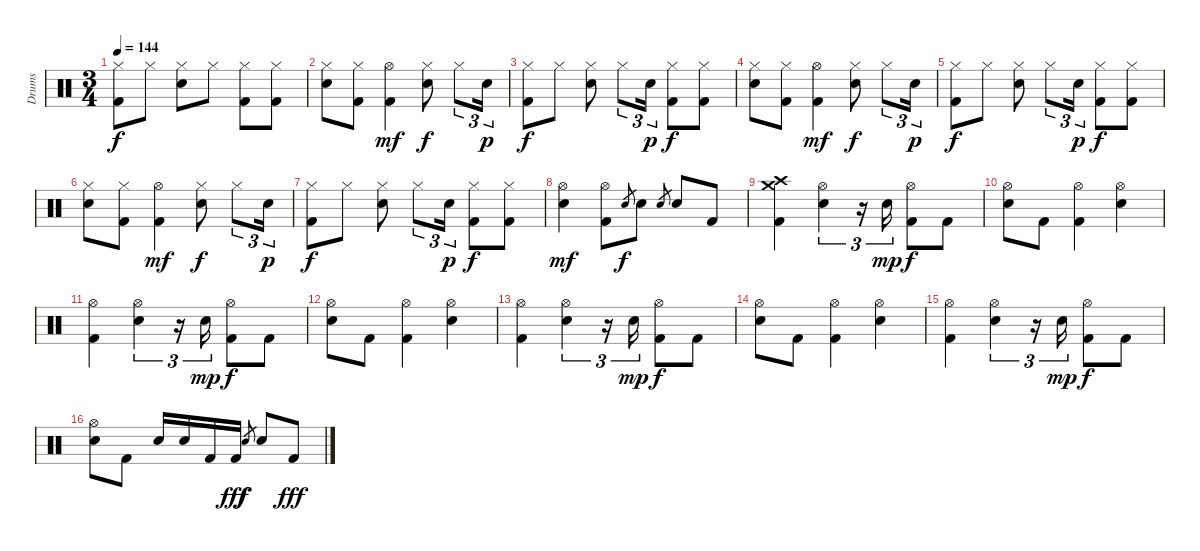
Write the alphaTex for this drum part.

\track ("Drums" "Drums") {instrument percussion}
\staff {score}
\articulation defaults
\ts (3 4)
\tempo 144
\clef neutral
\ks c
("Hi-Hat (closed)" "Kick (hit) 2").8{dy f} "Hi-Hat (closed)".8 ("Hi-Hat (closed)" "Snare (hit) 2").8 "Hi-Hat (closed)".8 ("Hi-Hat (closed)" "Kick (hit) 2").8 ("Hi-Hat (closed)" "Kick (hit) 2").8 |
("Hi-Hat (closed)" "Snare (hit) 2").8 ("Hi-Hat (closed)" "Kick (hit) 2").8 ("Hi-Hat (open)" "Kick (hit) 2").4{dy mf} ("Hi-Hat (closed)" "Snare (hit) 2").8{dy f} "Hi-Hat (closed)".8{tu (3 2)} "Snare (hit) 2".16{tu (3 2) dy p} |
("Hi-Hat (closed)" "Kick (hit) 2").8{dy f} "Hi-Hat (closed)".8 ("Hi-Hat (closed)" "Snare (hit) 2").8 "Hi-Hat (closed)".8{tu (3 2)} "Snare (hit) 2".16{tu (3 2) dy p} ("Hi-Hat (closed)" "Kick (hit) 2").8{dy f} ("Hi-Hat (closed)" "Kick (hit) 2").8 |
("Hi-Hat (closed)" "Snare (hit) 2").8 ("Hi-Hat (closed)" "Kick (hit) 2").8 ("Hi-Hat (open)" "Kick (hit) 2").4{dy mf} ("Hi-Hat (closed)" "Snare (hit) 2").8{dy f} "Hi-Hat (closed)".8{tu (3 2)} "Snare (hit) 2".16{tu (3 2) dy p} |
("Hi-Hat (closed)" "Kick (hit) 2").8{dy f} "Hi-Hat (closed)".8 ("Hi-Hat (closed)" "Snare (hit) 2").8 "Hi-Hat (closed)".8{tu (3 2)} "Snare (hit) 2".16{tu (3 2) dy p} ("Hi-Hat (closed)" "Kick (hit) 2").8{dy f} ("Hi-Hat (closed)" "Kick (hit) 2").8 |
("Hi-Hat (closed)" "Snare (hit) 2").8 ("Hi-Hat (closed)" "Kick (hit) 2").8 ("Hi-Hat (open)" "Kick (hit) 2").4{dy mf} ("Hi-Hat (closed)" "Snare (hit) 2").8{dy f} "Hi-Hat (closed)".8{tu (3 2)} "Snare (hit) 2".16{tu (3 2) dy p} |
("Hi-Hat (closed)" "Kick (hit) 2").8{dy f} "Hi-Hat (closed)".8 ("Hi-Hat (closed)" "Snare (hit) 2").8 "Hi-Hat (closed)".8{tu (3 2)} "Snare (hit) 2".16{tu (3 2) dy p} ("Hi-Hat (closed)" "Kick (hit) 2").8{dy f} ("Hi-Hat (closed)" "Kick (hit) 2").8 |
("Hi-Hat (open)" "Snare (hit) 2").4{dy mf} ("Hi-Hat (open)" "Kick (hit) 2").8 "Snare (hit) 2".8{gr dy f} "Snare (hit) 2".8 "Snare (hit) 2".8{gr} "Snare (hit) 2".8 "Kick (hit) 2".8 |
("Crash high (hit)" "Crash medium (hit)" "Kick (hit) 2").4 ("Hi-Hat (open)" "Snare (hit) 2").4{tu (3 2)} r.16{tu (3 2)} "Snare (hit) 2".16{tu (3 2) dy mp} ("Hi-Hat (open)" "Kick (hit) 2").8{dy f} "Kick (hit) 2".8 |
("Hi-Hat (open)" "Snare (hit) 2").8 "Kick (hit) 2".8 ("Hi-Hat (open)" "Kick (hit) 2").4 ("Hi-Hat (open)" "Snare (hit) 2").4 |
("Hi-Hat (open)" "Kick (hit) 2").4 ("Hi-Hat (open)" "Snare (hit) 2").4{tu (3 2)} r.16{tu (3 2)} "Snare (hit) 2".16{tu (3 2) dy mp} ("Hi-Hat (open)" "Kick (hit) 2").8{dy f} "Kick (hit) 2".8 |
("Hi-Hat (open)" "Snare (hit) 2").8 "Kick (hit) 2".8 ("Hi-Hat (open)" "Kick (hit) 2").4 ("Hi-Hat (open)" "Snare (hit) 2").4 |
("Hi-Hat (open)" "Kick (hit) 2").4 ("Hi-Hat (open)" "Snare (hit) 2").4{tu (3 2)} r.16{tu (3 2)} "Snare (hit) 2".16{tu (3 2) dy mp} ("Hi-Hat (open)" "Kick (hit) 2").8{dy f} "Kick (hit) 2".8 |
("Hi-Hat (open)" "Snare (hit) 2").8 "Kick (hit) 2".8 ("Hi-Hat (open)" "Kick (hit) 2").4 ("Hi-Hat (open)" "Snare (hit) 2").4 |
("Hi-Hat (open)" "Kick (hit) 2").4 ("Hi-Hat (open)" "Snare (hit) 2").4{tu (3 2)} r.16{tu (3 2)} "Snare (hit) 2".16{tu (3 2) dy mp} ("Hi-Hat (open)" "Kick (hit) 2").8{dy f} "Kick (hit) 2".8 |
("Hi-Hat (open)" "Snare (hit) 2").8 "Kick (hit) 2".8 "Snare (hit) 2".16 "Snare (hit) 2".16 "Kick (hit) 2".16 "Kick (hit) 2".16{dy fff} "Snare (hit) 2".8{gr dy f} "Snare (hit) 2".8 "Kick (hit) 2".8{dy fff}
